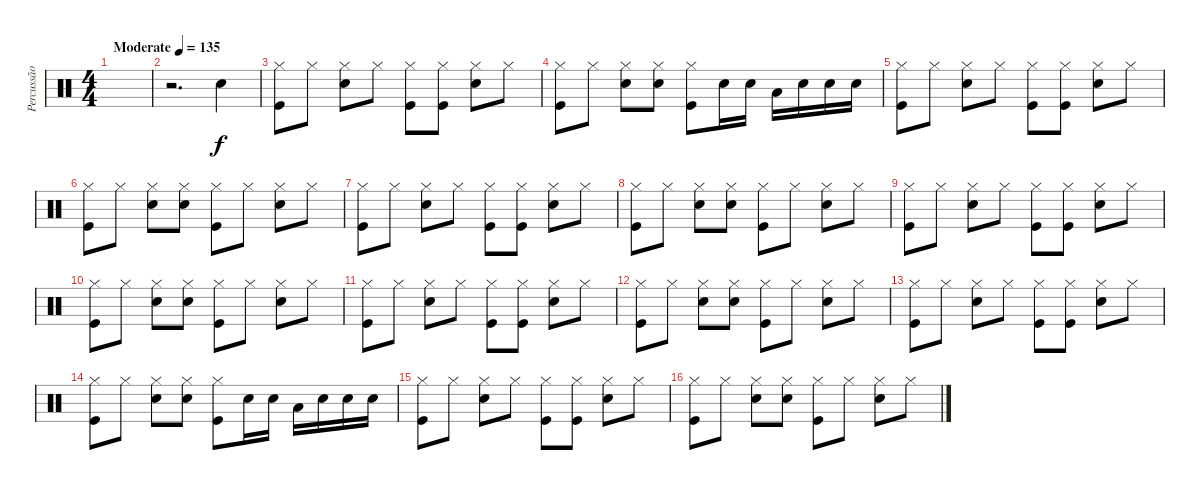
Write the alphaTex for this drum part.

\track ("Percussão" "Percussão") {instrument percussion}
\staff {score}
\articulation defaults
\ts (4 4)
\tempo (135 "Moderate")
\clef neutral
\ks c
|
r.2{d} "Snare (hit) 2".4 |
("Hi-Hat (closed)" "Kick (hit)").8 "Hi-Hat (closed)".8 ("Hi-Hat (closed)" "Snare (hit) 2").8 "Hi-Hat (closed)".8 ("Hi-Hat (closed)" "Kick (hit)").8 ("Hi-Hat (closed)" "Kick (hit)").8 ("Hi-Hat (closed)" "Snare (hit) 2").8 "Hi-Hat (closed)".8 |
("Hi-Hat (closed)" "Kick (hit)").8 "Hi-Hat (closed)".8 ("Hi-Hat (closed)" "Snare (hit) 2").8 ("Hi-Hat (closed)" "Snare (hit) 2").8 ("Hi-Hat (closed)" "Kick (hit)").8 "Snare (hit) 2".16 "Snare (hit) 2".16 "Low Tom (hit)".16 "Snare (hit) 2".16 "Snare (hit) 2".16 "Snare (hit) 2".16 |
("Hi-Hat (closed)" "Kick (hit)").8 "Hi-Hat (closed)".8 ("Hi-Hat (closed)" "Snare (hit) 2").8 "Hi-Hat (closed)".8 ("Hi-Hat (closed)" "Kick (hit)").8 ("Hi-Hat (closed)" "Kick (hit)").8 ("Hi-Hat (closed)" "Snare (hit) 2").8 "Hi-Hat (closed)".8 |
("Hi-Hat (closed)" "Kick (hit)").8 "Hi-Hat (closed)".8 ("Hi-Hat (closed)" "Snare (hit) 2").8 ("Hi-Hat (closed)" "Snare (hit) 2").8 ("Hi-Hat (closed)" "Kick (hit)").8 "Hi-Hat (closed)".8 ("Hi-Hat (closed)" "Snare (hit) 2").8 "Hi-Hat (closed)".8 |
("Hi-Hat (closed)" "Kick (hit)").8 "Hi-Hat (closed)".8 ("Hi-Hat (closed)" "Snare (hit) 2").8 "Hi-Hat (closed)".8 ("Hi-Hat (closed)" "Kick (hit)").8 ("Hi-Hat (closed)" "Kick (hit)").8 ("Hi-Hat (closed)" "Snare (hit) 2").8 "Hi-Hat (closed)".8 |
("Hi-Hat (closed)" "Kick (hit)").8 "Hi-Hat (closed)".8 ("Hi-Hat (closed)" "Snare (hit) 2").8 ("Hi-Hat (closed)" "Snare (hit) 2").8 ("Hi-Hat (closed)" "Kick (hit)").8 "Hi-Hat (closed)".8 ("Hi-Hat (closed)" "Snare (hit) 2").8 "Hi-Hat (closed)".8 |
("Hi-Hat (closed)" "Kick (hit)").8 "Hi-Hat (closed)".8 ("Hi-Hat (closed)" "Snare (hit) 2").8 "Hi-Hat (closed)".8 ("Hi-Hat (closed)" "Kick (hit)").8 ("Hi-Hat (closed)" "Kick (hit)").8 ("Hi-Hat (closed)" "Snare (hit) 2").8 "Hi-Hat (closed)".8 |
("Hi-Hat (closed)" "Kick (hit)").8 "Hi-Hat (closed)".8 ("Hi-Hat (closed)" "Snare (hit) 2").8 ("Hi-Hat (closed)" "Snare (hit) 2").8 ("Hi-Hat (closed)" "Kick (hit)").8 "Hi-Hat (closed)".8 ("Hi-Hat (closed)" "Snare (hit) 2").8 "Hi-Hat (closed)".8 |
("Hi-Hat (closed)" "Kick (hit)").8 "Hi-Hat (closed)".8 ("Hi-Hat (closed)" "Snare (hit) 2").8 "Hi-Hat (closed)".8 ("Hi-Hat (closed)" "Kick (hit)").8 ("Hi-Hat (closed)" "Kick (hit)").8 ("Hi-Hat (closed)" "Snare (hit) 2").8 "Hi-Hat (closed)".8 |
("Hi-Hat (closed)" "Kick (hit)").8 "Hi-Hat (closed)".8 ("Hi-Hat (closed)" "Snare (hit) 2").8 ("Hi-Hat (closed)" "Snare (hit) 2").8 ("Hi-Hat (closed)" "Kick (hit)").8 "Hi-Hat (closed)".8 ("Hi-Hat (closed)" "Snare (hit) 2").8 "Hi-Hat (closed)".8 |
("Hi-Hat (closed)" "Kick (hit)").8 "Hi-Hat (closed)".8 ("Hi-Hat (closed)" "Snare (hit) 2").8 "Hi-Hat (closed)".8 ("Hi-Hat (closed)" "Kick (hit)").8 ("Hi-Hat (closed)" "Kick (hit)").8 ("Hi-Hat (closed)" "Snare (hit) 2").8 "Hi-Hat (closed)".8 |
("Hi-Hat (closed)" "Kick (hit)").8 "Hi-Hat (closed)".8 ("Hi-Hat (closed)" "Snare (hit) 2").8 ("Hi-Hat (closed)" "Snare (hit) 2").8 ("Hi-Hat (closed)" "Kick (hit)").8 "Snare (hit) 2".16 "Snare (hit) 2".16 "Low Tom (hit)".16 "Snare (hit) 2".16 "Snare (hit) 2".16 "Snare (hit) 2".16 |
("Hi-Hat (closed)" "Kick (hit)").8 "Hi-Hat (closed)".8 ("Hi-Hat (closed)" "Snare (hit) 2").8 "Hi-Hat (closed)".8 ("Hi-Hat (closed)" "Kick (hit)").8 ("Hi-Hat (closed)" "Kick (hit)").8 ("Hi-Hat (closed)" "Snare (hit) 2").8 "Hi-Hat (closed)".8 |
("Hi-Hat (closed)" "Kick (hit)").8 "Hi-Hat (closed)".8 ("Hi-Hat (closed)" "Snare (hit) 2").8 ("Hi-Hat (closed)" "Snare (hit) 2").8 ("Hi-Hat (closed)" "Kick (hit)").8 "Hi-Hat (closed)".8 ("Hi-Hat (closed)" "Snare (hit) 2").8 "Hi-Hat (closed)".8
